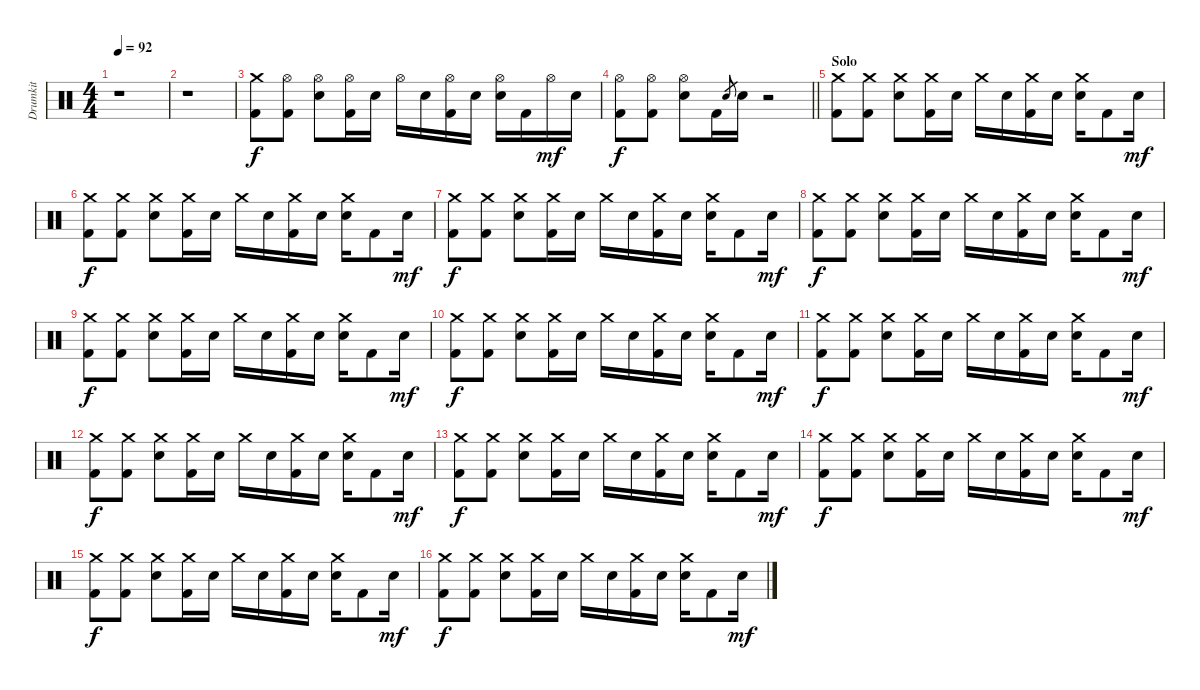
\track ("Drumkit" "Drumkit") {instrument percussion}
\staff {score}
\articulation defaults
\ts (4 4)
\section ("" "")
\tempo 92
\clef neutral
\ks c
r.1{dy mp} |
r.1 |
("Crash medium (hit)" "Kick (hit) 2").8{dy f} ("Hi-Hat (open)" "Kick (hit) 2").8 ("Hi-Hat (open)" "Snare (hit) 2").8 ("Hi-Hat (open)" "Kick (hit) 2").16 "Snare (hit) 2".16 "Hi-Hat (open)".16 "Snare (hit) 2".16 ("Hi-Hat (open)" "Kick (hit) 2").16 "Snare (hit) 2".16 ("Hi-Hat (open)" "Snare (hit) 2").16 "Kick (hit) 2".16 "Hi-Hat (open)".16{dy mf} "Snare (hit) 2".16 |
\barLineRight lightlight
("Hi-Hat (open)" "Kick (hit) 2").8{dy f} ("Hi-Hat (open)" "Kick (hit) 2").8 ("Hi-Hat (open)" "Snare (hit) 2").8 "Kick (hit) 2".16 "Snare (hit)".8{gr} "Snare (hit) 2".16 r.2 |
\section ("" "Solo")
("Crash medium (hit)" "Kick (hit) 2").8 ("Crash medium (hit)" "Kick (hit) 2").8 ("Crash medium (hit)" "Snare (hit) 2").8 ("Crash medium (hit)" "Kick (hit) 2").16 "Snare (hit) 2".16 "Crash medium (hit)".16 "Snare (hit) 2".16 ("Crash medium (hit)" "Kick (hit) 2").16 "Snare (hit) 2".16 ("Crash medium (hit)" "Snare (hit) 2").16 "Kick (hit) 2".8 "Snare (hit) 2".16{dy mf} |
("Crash medium (hit)" "Kick (hit) 2").8{dy f} ("Crash medium (hit)" "Kick (hit) 2").8 ("Crash medium (hit)" "Snare (hit) 2").8 ("Crash medium (hit)" "Kick (hit) 2").16 "Snare (hit) 2".16 "Crash medium (hit)".16 "Snare (hit) 2".16 ("Crash medium (hit)" "Kick (hit) 2").16 "Snare (hit) 2".16 ("Crash medium (hit)" "Snare (hit) 2").16 "Kick (hit) 2".8 "Snare (hit) 2".16{dy mf} |
("Crash medium (hit)" "Kick (hit) 2").8{dy f} ("Crash medium (hit)" "Kick (hit) 2").8 ("Crash medium (hit)" "Snare (hit) 2").8 ("Crash medium (hit)" "Kick (hit) 2").16 "Snare (hit) 2".16 "Crash medium (hit)".16 "Snare (hit) 2".16 ("Crash medium (hit)" "Kick (hit) 2").16 "Snare (hit) 2".16 ("Crash medium (hit)" "Snare (hit) 2").16 "Kick (hit) 2".8 "Snare (hit) 2".16{dy mf} |
("Crash medium (hit)" "Kick (hit) 2").8{dy f} ("Crash medium (hit)" "Kick (hit) 2").8 ("Crash medium (hit)" "Snare (hit) 2").8 ("Crash medium (hit)" "Kick (hit) 2").16 "Snare (hit) 2".16 "Crash medium (hit)".16 "Snare (hit) 2".16 ("Crash medium (hit)" "Kick (hit) 2").16 "Snare (hit) 2".16 ("Crash medium (hit)" "Snare (hit) 2").16 "Kick (hit) 2".8 "Snare (hit) 2".16{dy mf} |
("Crash medium (hit)" "Kick (hit) 2").8{dy f} ("Crash medium (hit)" "Kick (hit) 2").8 ("Crash medium (hit)" "Snare (hit) 2").8 ("Crash medium (hit)" "Kick (hit) 2").16 "Snare (hit) 2".16 "Crash medium (hit)".16 "Snare (hit) 2".16 ("Crash medium (hit)" "Kick (hit) 2").16 "Snare (hit) 2".16 ("Crash medium (hit)" "Snare (hit) 2").16 "Kick (hit) 2".8 "Snare (hit) 2".16{dy mf} |
("Crash medium (hit)" "Kick (hit) 2").8{dy f} ("Crash medium (hit)" "Kick (hit) 2").8 ("Crash medium (hit)" "Snare (hit) 2").8 ("Crash medium (hit)" "Kick (hit) 2").16 "Snare (hit) 2".16 "Crash medium (hit)".16 "Snare (hit) 2".16 ("Crash medium (hit)" "Kick (hit) 2").16 "Snare (hit) 2".16 ("Crash medium (hit)" "Snare (hit) 2").16 "Kick (hit) 2".8 "Snare (hit) 2".16{dy mf} |
("Crash medium (hit)" "Kick (hit) 2").8{dy f} ("Crash medium (hit)" "Kick (hit) 2").8 ("Crash medium (hit)" "Snare (hit) 2").8 ("Crash medium (hit)" "Kick (hit) 2").16 "Snare (hit) 2".16 "Crash medium (hit)".16 "Snare (hit) 2".16 ("Crash medium (hit)" "Kick (hit) 2").16 "Snare (hit) 2".16 ("Crash medium (hit)" "Snare (hit) 2").16 "Kick (hit) 2".8 "Snare (hit) 2".16{dy mf} |
("Crash medium (hit)" "Kick (hit) 2").8{dy f} ("Crash medium (hit)" "Kick (hit) 2").8 ("Crash medium (hit)" "Snare (hit) 2").8 ("Crash medium (hit)" "Kick (hit) 2").16 "Snare (hit) 2".16 "Crash medium (hit)".16 "Snare (hit) 2".16 ("Crash medium (hit)" "Kick (hit) 2").16 "Snare (hit) 2".16 ("Crash medium (hit)" "Snare (hit) 2").16 "Kick (hit) 2".8 "Snare (hit) 2".16{dy mf} |
("Crash medium (hit)" "Kick (hit) 2").8{dy f} ("Crash medium (hit)" "Kick (hit) 2").8 ("Crash medium (hit)" "Snare (hit) 2").8 ("Crash medium (hit)" "Kick (hit) 2").16 "Snare (hit) 2".16 "Crash medium (hit)".16 "Snare (hit) 2".16 ("Crash medium (hit)" "Kick (hit) 2").16 "Snare (hit) 2".16 ("Crash medium (hit)" "Snare (hit) 2").16 "Kick (hit) 2".8 "Snare (hit) 2".16{dy mf} |
("Crash medium (hit)" "Kick (hit) 2").8{dy f} ("Crash medium (hit)" "Kick (hit) 2").8 ("Crash medium (hit)" "Snare (hit) 2").8 ("Crash medium (hit)" "Kick (hit) 2").16 "Snare (hit) 2".16 "Crash medium (hit)".16 "Snare (hit) 2".16 ("Crash medium (hit)" "Kick (hit) 2").16 "Snare (hit) 2".16 ("Crash medium (hit)" "Snare (hit) 2").16 "Kick (hit) 2".8 "Snare (hit) 2".16{dy mf} |
("Crash medium (hit)" "Kick (hit) 2").8{dy f} ("Crash medium (hit)" "Kick (hit) 2").8 ("Crash medium (hit)" "Snare (hit) 2").8 ("Crash medium (hit)" "Kick (hit) 2").16 "Snare (hit) 2".16 "Crash medium (hit)".16 "Snare (hit) 2".16 ("Crash medium (hit)" "Kick (hit) 2").16 "Snare (hit) 2".16 ("Crash medium (hit)" "Snare (hit) 2").16 "Kick (hit) 2".8 "Snare (hit) 2".16{dy mf} |
("Crash medium (hit)" "Kick (hit) 2").8{dy f} ("Crash medium (hit)" "Kick (hit) 2").8 ("Crash medium (hit)" "Snare (hit) 2").8 ("Crash medium (hit)" "Kick (hit) 2").16 "Snare (hit) 2".16 "Crash medium (hit)".16 "Snare (hit) 2".16 ("Crash medium (hit)" "Kick (hit) 2").16 "Snare (hit) 2".16 ("Crash medium (hit)" "Snare (hit) 2").16 "Kick (hit) 2".8 "Snare (hit) 2".16{dy mf}
